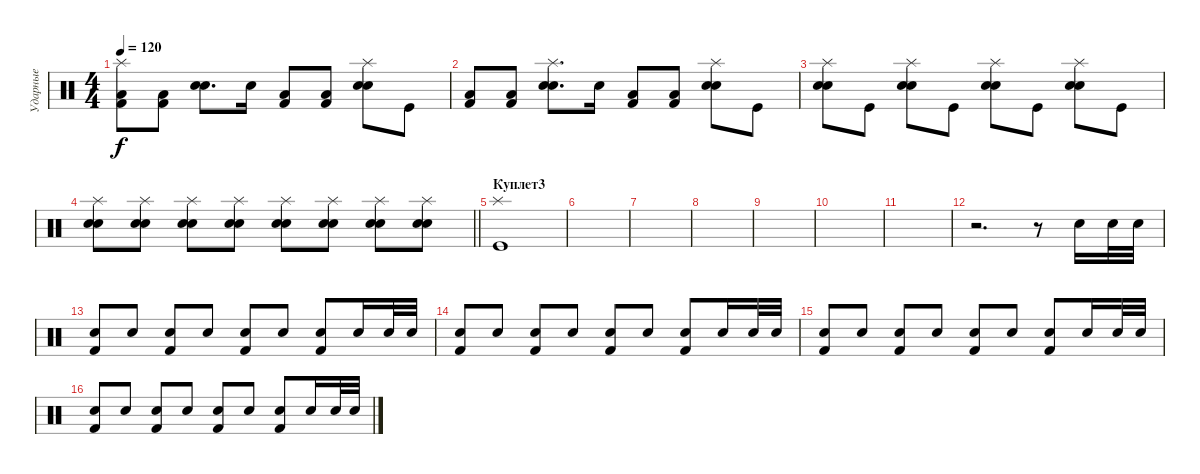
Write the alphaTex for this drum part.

\track ("Ударные" "Ударные") {instrument percussion}
\staff {score}
\articulation defaults
\ts (4 4)
\tempo 120
\clef neutral
\ks c
("Splash (hit)" "Low Floor Tom (hit)" "Kick (hit) 2").8{dy f} ("Low Floor Tom (hit)" "Kick (hit) 2").8 ("Electric Snare (hit)" "Snare (hit) 2").8{d} "Electric Snare (hit)".16 ("Low Floor Tom (hit)" "Kick (hit) 2").8 ("Low Floor Tom (hit)" "Kick (hit) 2").8 ("Splash (hit)" "Electric Snare (hit)" "Snare (hit) 2").8 "Kick (hit)".8 |
("Low Floor Tom (hit)" "Kick (hit) 2").8 ("Low Floor Tom (hit)" "Kick (hit) 2").8 ("Splash (hit)" "Electric Snare (hit)" "Snare (hit) 2").8{d} "Electric Snare (hit)".16 ("Low Floor Tom (hit)" "Kick (hit) 2").8 ("Low Floor Tom (hit)" "Kick (hit) 2").8 ("Splash (hit)" "Electric Snare (hit)" "Snare (hit) 2").8 "Kick (hit)".8 |
("Splash (hit)" "Electric Snare (hit)" "Snare (hit) 2").8 "Kick (hit)".8 ("Splash (hit)" "Electric Snare (hit)" "Snare (hit) 2").8 "Kick (hit)".8 ("Splash (hit)" "Electric Snare (hit)" "Snare (hit) 2").8 "Kick (hit)".8 ("Splash (hit)" "Electric Snare (hit)" "Snare (hit) 2").8 "Kick (hit)".8 |
\barLineRight lightlight
("Splash (hit)" "Electric Snare (hit)" "Snare (hit) 2").8 ("Splash (hit)" "Electric Snare (hit)" "Snare (hit) 2").8 ("Splash (hit)" "Electric Snare (hit)" "Snare (hit) 2").8 ("Splash (hit)" "Electric Snare (hit)" "Snare (hit) 2").8 ("Splash (hit)" "Electric Snare (hit)" "Snare (hit) 2").8 ("Splash (hit)" "Electric Snare (hit)" "Snare (hit) 2").8 ("Splash (hit)" "Electric Snare (hit)" "Snare (hit) 2").8 ("Splash (hit)" "Electric Snare (hit)" "Snare (hit) 2").8 |
\section ("" "Куплет3")
("Splash (hit)" "Kick (hit)").1 |
|
|
|
|
|
|
r.2{d} r.8 "Electric Snare (hit)".16 "Electric Snare (hit)".32 "Electric Snare (hit)".32 |
("Electric Snare (hit)" "Kick (hit) 2").8 "Electric Snare (hit)".8 ("Electric Snare (hit)" "Kick (hit) 2").8 "Electric Snare (hit)".8 ("Electric Snare (hit)" "Kick (hit) 2").8 "Electric Snare (hit)".8 ("Electric Snare (hit)" "Kick (hit) 2").8 "Electric Snare (hit)".16 "Electric Snare (hit)".32 "Electric Snare (hit)".32 |
("Electric Snare (hit)" "Kick (hit) 2").8 "Electric Snare (hit)".8 ("Electric Snare (hit)" "Kick (hit) 2").8 "Electric Snare (hit)".8 ("Electric Snare (hit)" "Kick (hit) 2").8 "Electric Snare (hit)".8 ("Electric Snare (hit)" "Kick (hit) 2").8 "Electric Snare (hit)".16 "Electric Snare (hit)".32 "Electric Snare (hit)".32 |
("Electric Snare (hit)" "Kick (hit) 2").8 "Electric Snare (hit)".8 ("Electric Snare (hit)" "Kick (hit) 2").8 "Electric Snare (hit)".8 ("Electric Snare (hit)" "Kick (hit) 2").8 "Electric Snare (hit)".8 ("Electric Snare (hit)" "Kick (hit) 2").8 "Electric Snare (hit)".16 "Electric Snare (hit)".32 "Electric Snare (hit)".32 |
("Electric Snare (hit)" "Kick (hit) 2").8 "Electric Snare (hit)".8 ("Electric Snare (hit)" "Kick (hit) 2").8 "Electric Snare (hit)".8 ("Electric Snare (hit)" "Kick (hit) 2").8 "Electric Snare (hit)".8 ("Electric Snare (hit)" "Kick (hit) 2").8 "Electric Snare (hit)".16 "Electric Snare (hit)".32 "Electric Snare (hit)".32
